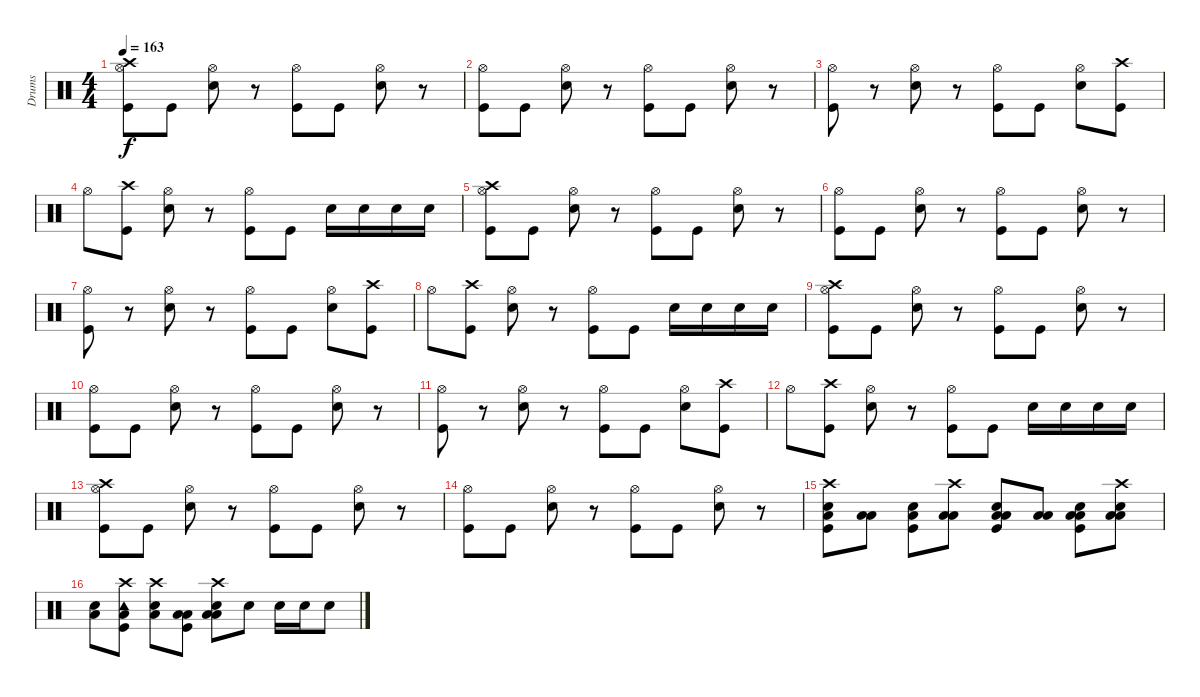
\track ("Drums" "Drums") {instrument percussion}
\staff {score}
\articulation defaults
\ts (4 4)
\tempo 163
\clef neutral
\ks c
("Crash high (hit)" "Kick (hit)" "Hi-Hat (open)").8{dy f volume 10} "Kick (hit)".8 ("Electric Snare (hit)" "Hi-Hat (open)").8 r.8 ("Kick (hit)" "Hi-Hat (open)").8 "Kick (hit)".8 ("Electric Snare (hit)" "Hi-Hat (open)").8 r.8 |
("Kick (hit)" "Hi-Hat (open)").8 "Kick (hit)".8 ("Electric Snare (hit)" "Hi-Hat (open)").8 r.8 ("Kick (hit)" "Hi-Hat (open)").8 "Kick (hit)".8 ("Electric Snare (hit)" "Hi-Hat (open)").8 r.8 |
("Kick (hit)" "Hi-Hat (open)").8 r.8 ("Electric Snare (hit)" "Hi-Hat (open)").8 r.8 ("Kick (hit)" "Hi-Hat (open)").8 "Kick (hit)".8 ("Electric Snare (hit)" "Hi-Hat (open)").8 ("Kick (hit)" "Crash high (hit)").8 |
"Hi-Hat (open)".8 ("Kick (hit)" "Crash high (hit)").8 ("Electric Snare (hit)" "Hi-Hat (open)").8 r.8 ("Kick (hit)" "Hi-Hat (open)").8 "Kick (hit)".8 "Snare (hit) 2".16 "Snare (hit) 2".16 "Snare (hit) 2".16 "Snare (hit) 2".16 |
("Crash high (hit)" "Kick (hit)" "Hi-Hat (open)").8{volume 10} "Kick (hit)".8 ("Electric Snare (hit)" "Hi-Hat (open)").8 r.8 ("Kick (hit)" "Hi-Hat (open)").8 "Kick (hit)".8 ("Electric Snare (hit)" "Hi-Hat (open)").8 r.8 |
("Kick (hit)" "Hi-Hat (open)").8 "Kick (hit)".8 ("Electric Snare (hit)" "Hi-Hat (open)").8 r.8 ("Kick (hit)" "Hi-Hat (open)").8 "Kick (hit)".8 ("Electric Snare (hit)" "Hi-Hat (open)").8 r.8 |
("Kick (hit)" "Hi-Hat (open)").8 r.8 ("Electric Snare (hit)" "Hi-Hat (open)").8 r.8 ("Kick (hit)" "Hi-Hat (open)").8 "Kick (hit)".8 ("Electric Snare (hit)" "Hi-Hat (open)").8 ("Kick (hit)" "Crash high (hit)").8 |
"Hi-Hat (open)".8 ("Kick (hit)" "Crash high (hit)").8 ("Electric Snare (hit)" "Hi-Hat (open)").8 r.8 ("Kick (hit)" "Hi-Hat (open)").8 "Kick (hit)".8 "Snare (hit) 2".16 "Snare (hit) 2".16 "Snare (hit) 2".16 "Snare (hit) 2".16 |
("Crash high (hit)" "Kick (hit)" "Hi-Hat (open)").8{volume 10} "Kick (hit)".8 ("Electric Snare (hit)" "Hi-Hat (open)").8 r.8 ("Kick (hit)" "Hi-Hat (open)").8 "Kick (hit)".8 ("Electric Snare (hit)" "Hi-Hat (open)").8 r.8 |
("Kick (hit)" "Hi-Hat (open)").8 "Kick (hit)".8 ("Electric Snare (hit)" "Hi-Hat (open)").8 r.8 ("Kick (hit)" "Hi-Hat (open)").8 "Kick (hit)".8 ("Electric Snare (hit)" "Hi-Hat (open)").8 r.8 |
("Kick (hit)" "Hi-Hat (open)").8 r.8 ("Electric Snare (hit)" "Hi-Hat (open)").8 r.8 ("Kick (hit)" "Hi-Hat (open)").8 "Kick (hit)".8 ("Electric Snare (hit)" "Hi-Hat (open)").8 ("Kick (hit)" "Crash high (hit)").8 |
"Hi-Hat (open)".8 ("Kick (hit)" "Crash high (hit)").8 ("Electric Snare (hit)" "Hi-Hat (open)").8 r.8 ("Kick (hit)" "Hi-Hat (open)").8 "Kick (hit)".8 "Snare (hit) 2".16 "Snare (hit) 2".16 "Snare (hit) 2".16 "Snare (hit) 2".16 |
("Crash high (hit)" "Kick (hit)" "Hi-Hat (open)").8{volume 10} "Kick (hit)".8 ("Electric Snare (hit)" "Hi-Hat (open)").8 r.8 ("Kick (hit)" "Hi-Hat (open)").8 "Kick (hit)".8 ("Electric Snare (hit)" "Hi-Hat (open)").8 r.8 |
("Kick (hit)" "Hi-Hat (open)").8 "Kick (hit)".8 ("Electric Snare (hit)" "Hi-Hat (open)").8 r.8 ("Kick (hit)" "Hi-Hat (open)").8 "Kick (hit)".8 ("Electric Snare (hit)" "Hi-Hat (open)").8 r.8 |
("Crash high (hit)" "Snare (hit) 2" "Low Floor Tom (hit)" "Kick (hit)").8 ("Low Tom (hit)" "Low Floor Tom (hit)").8 ("Snare (hit) 2" "Low Floor Tom (hit)" "Kick (hit)").8 ("Crash high (hit)" "Low Tom (hit)" "Low Floor Tom (hit)").8 ("Snare (hit) 2" "Low Tom (hit)" "Low Floor Tom (hit)" "Kick (hit)").8 ("Low Tom (hit)" "Low Floor Tom (hit)").8 ("Snare (hit) 2" "Low Tom (hit)" "Low Floor Tom (hit)" "Kick (hit)").8 ("Crash high (hit)" "Snare (hit) 2" "Low Tom (hit)" "Low Floor Tom (hit)").8 |
("Snare (hit) 2" "Low Floor Tom (hit)").8 ("Crash high (hit)" "Tambourine (hit)" "Low Floor Tom (hit)" "Kick (hit)").8 ("Crash high (hit)" "Snare (hit) 2" "Low Floor Tom (hit)").8 ("Low Tom (hit)" "Low Floor Tom (hit)" "Kick (hit)").8 ("Crash high (hit)" "Snare (hit) 2" "Low Tom (hit)" "Low Floor Tom (hit)").8 "Snare (hit) 2".8 "Snare (hit) 2".16 "Snare (hit) 2".16 "Snare (hit) 2".8
